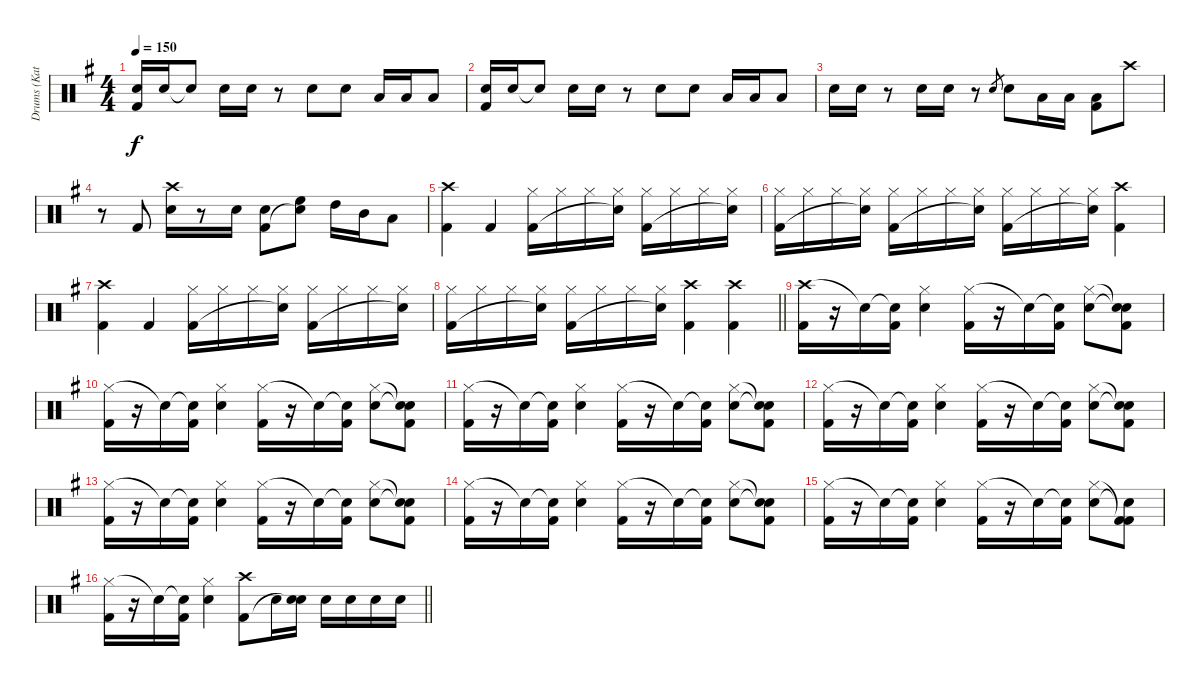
\track ("Drums (Katsuji)" "Drums (Kat") {instrument percussion}
\staff {score}
\articulation defaults
\ts (4 4)
\tempo 150
\clef neutral
\ks g
("Snare (hit) 2" "Kick (hit) 2").16{dy f} "Snare (hit) 2".16 "Snare (hit)"{t}.8 "Snare (hit) 2".16 "Snare (hit) 2".16 r.8 "Snare (hit) 2".8 "Snare (hit) 2".8 "Low Tom (hit)".16 "Low Tom (hit)".16 "Low Tom (hit)".8 |
("Snare (hit) 2" "Kick (hit) 2").16 "Snare (hit) 2".16 "Snare (hit)"{t}.8 "Snare (hit) 2".16 "Snare (hit) 2".16 r.8 "Snare (hit) 2".8 "Snare (hit) 2".8 "Low Tom (hit)".16 "Low Tom (hit)".16 "Low Tom (hit)".8 |
"Snare (hit) 2".16 "Snare (hit) 2".16 r.8 "Snare (hit) 2".16 "Snare (hit) 2".16 r.8 "Snare (hit) 2".8{gr} "Snare (hit) 2".8 "Low Tom (hit)".16 "Low Tom (hit)".16 ("Low Tom (hit)" "Kick (hit) 2").8 "Crash high (hit)".8 |
r.8 "Kick (hit) 2".8 ("Crash high (hit)" "Snare (hit) 2").16 r.8 "Snare (hit) 2".16 ("Snare (hit) 2" "Kick (hit) 2").8 ("High Floor Tom (hit)" "Snare (hit)"{t}).8 "High Tom (hit)".16 "Mid Tom (hit)".16 "Low Tom (hit)".8 |
("Crash high (hit)" "Kick (hit) 2").4 "Kick (hit) 2".4 ("Hi-Hat (closed)" "Kick (hit) 2").16 "Hi-Hat (closed)".16 "Hi-Hat (closed)".16 ("Hi-Hat (closed)" "Snare (hit)"{t}).16 ("Hi-Hat (closed)" "Kick (hit) 2").16 "Hi-Hat (closed)".16 "Hi-Hat (closed)".16 ("Hi-Hat (closed)" "Snare (hit)"{t}).16 |
("Hi-Hat (closed)" "Kick (hit) 2").16 "Hi-Hat (closed)".16 "Hi-Hat (closed)".16 ("Hi-Hat (closed)" "Snare (hit)"{t}).16 ("Hi-Hat (closed)" "Kick (hit) 2").16 "Hi-Hat (closed)".16 "Hi-Hat (closed)".16 ("Hi-Hat (closed)" "Snare (hit)"{t}).16 ("Hi-Hat (closed)" "Kick (hit) 2").16 "Hi-Hat (closed)".16 "Hi-Hat (closed)".16 ("Hi-Hat (closed)" "Snare (hit)"{t}).16 ("Crash high (hit)" "Kick (hit) 2").4 |
("Crash high (hit)" "Kick (hit) 2").4 "Kick (hit) 2".4 ("Hi-Hat (closed)" "Kick (hit) 2").16 "Hi-Hat (closed)".16 "Hi-Hat (closed)".16 ("Hi-Hat (closed)" "Snare (hit)"{t}).16 ("Hi-Hat (closed)" "Kick (hit) 2").16 "Hi-Hat (closed)".16 "Hi-Hat (closed)".16 ("Hi-Hat (closed)" "Snare (hit)"{t}).16 |
\barLineRight lightlight
("Hi-Hat (closed)" "Kick (hit) 2").16 "Hi-Hat (closed)".16 "Hi-Hat (closed)".16 ("Hi-Hat (closed)" "Snare (hit)"{t}).16 ("Hi-Hat (closed)" "Kick (hit) 2").16 "Hi-Hat (closed)".16 "Hi-Hat (closed)".16 ("Hi-Hat (closed)" "Snare (hit)"{t}).16 ("Crash high (hit)" "Kick (hit) 2").4 ("Crash high (hit)" "Kick (hit) 2").4 |
("Crash high (hit)" "Kick (hit) 2").16 r.16 "Snare (hit)"{t}.16 ("Snare (hit)"{t} "Kick (hit) 2").16 ("Hi-Hat (closed)" "Snare (hit) 2").4 ("Hi-Hat (closed)" "Kick (hit) 2").16 r.16 "Snare (hit)"{t}.16 ("Snare (hit)"{t} "Kick (hit) 2").16 ("Hi-Hat (closed)" "Snare (hit) 2").8 ("Snare (hit)"{t} "Snare (hit)"{t} "Kick (hit) 2").8 |
("Hi-Hat (closed)" "Kick (hit) 2").16 r.16 "Snare (hit)"{t}.16 ("Snare (hit)"{t} "Kick (hit) 2").16 ("Hi-Hat (closed)" "Snare (hit) 2").4 ("Hi-Hat (closed)" "Kick (hit) 2").16 r.16 "Snare (hit)"{t}.16 ("Snare (hit)"{t} "Kick (hit) 2").16 ("Hi-Hat (closed)" "Snare (hit) 2").8 ("Snare (hit)"{t} "Snare (hit)"{t} "Kick (hit) 2").8 |
("Hi-Hat (closed)" "Kick (hit) 2").16 r.16 "Snare (hit)"{t}.16 ("Snare (hit)"{t} "Kick (hit) 2").16 ("Hi-Hat (closed)" "Snare (hit) 2").4 ("Hi-Hat (closed)" "Kick (hit) 2").16 r.16 "Snare (hit)"{t}.16 ("Snare (hit)"{t} "Kick (hit) 2").16 ("Hi-Hat (closed)" "Snare (hit) 2").8 ("Snare (hit)"{t} "Snare (hit)"{t} "Kick (hit) 2").8 |
("Hi-Hat (closed)" "Kick (hit) 2").16 r.16 "Snare (hit)"{t}.16 ("Snare (hit)"{t} "Kick (hit) 2").16 ("Hi-Hat (closed)" "Snare (hit) 2").4 ("Hi-Hat (closed)" "Kick (hit) 2").16 r.16 "Snare (hit)"{t}.16 ("Snare (hit)"{t} "Kick (hit) 2").16 ("Hi-Hat (closed)" "Snare (hit) 2").8 ("Snare (hit)"{t} "Snare (hit)"{t} "Kick (hit) 2").8 |
("Hi-Hat (closed)" "Kick (hit) 2").16 r.16 "Snare (hit)"{t}.16 ("Snare (hit)"{t} "Kick (hit) 2").16 ("Hi-Hat (closed)" "Snare (hit) 2").4 ("Hi-Hat (closed)" "Kick (hit) 2").16 r.16 "Snare (hit)"{t}.16 ("Snare (hit)"{t} "Kick (hit) 2").16 ("Hi-Hat (closed)" "Snare (hit) 2").8 ("Snare (hit)"{t} "Snare (hit)"{t} "Kick (hit) 2").8 |
("Hi-Hat (closed)" "Kick (hit) 2").16 r.16 "Snare (hit)"{t}.16 ("Snare (hit)"{t} "Kick (hit) 2").16 ("Hi-Hat (closed)" "Snare (hit) 2").4 ("Hi-Hat (closed)" "Kick (hit) 2").16 r.16 "Snare (hit)"{t}.16 ("Snare (hit)"{t} "Kick (hit) 2").16 ("Hi-Hat (closed)" "Snare (hit) 2").8 ("Snare (hit)"{t} "Snare (hit)"{t} "Kick (hit) 2").8 |
("Hi-Hat (closed)" "Kick (hit) 2").16 r.16 "Snare (hit)"{t}.16 ("Snare (hit)"{t} "Kick (hit) 2").16 ("Hi-Hat (closed)" "Snare (hit) 2").4 ("Hi-Hat (closed)" "Kick (hit) 2").16 r.16 "Snare (hit)"{t}.16 ("Snare (hit)"{t} "Kick (hit) 2").16 ("Hi-Hat (closed)" "Snare (hit) 2").8 ("Kick (hit) 2"{t} "Snare (hit)"{t} "Kick (hit) 2").8 |
\barLineRight lightlight
("Hi-Hat (closed)" "Kick (hit) 2").16 r.16 "Snare (hit)"{t}.16 ("Snare (hit)"{t} "Kick (hit) 2").16 ("Hi-Hat (closed)" "Snare (hit) 2").4 ("Crash high (hit)" "Kick (hit) 2").8 "Snare (hit) 2".16 ("Snare (hit) 2" "Snare (hit)"{t}).16 "Snare (hit) 2".16 "Snare (hit) 2".16 "Snare (hit) 2".16 "Snare (hit) 2".16
